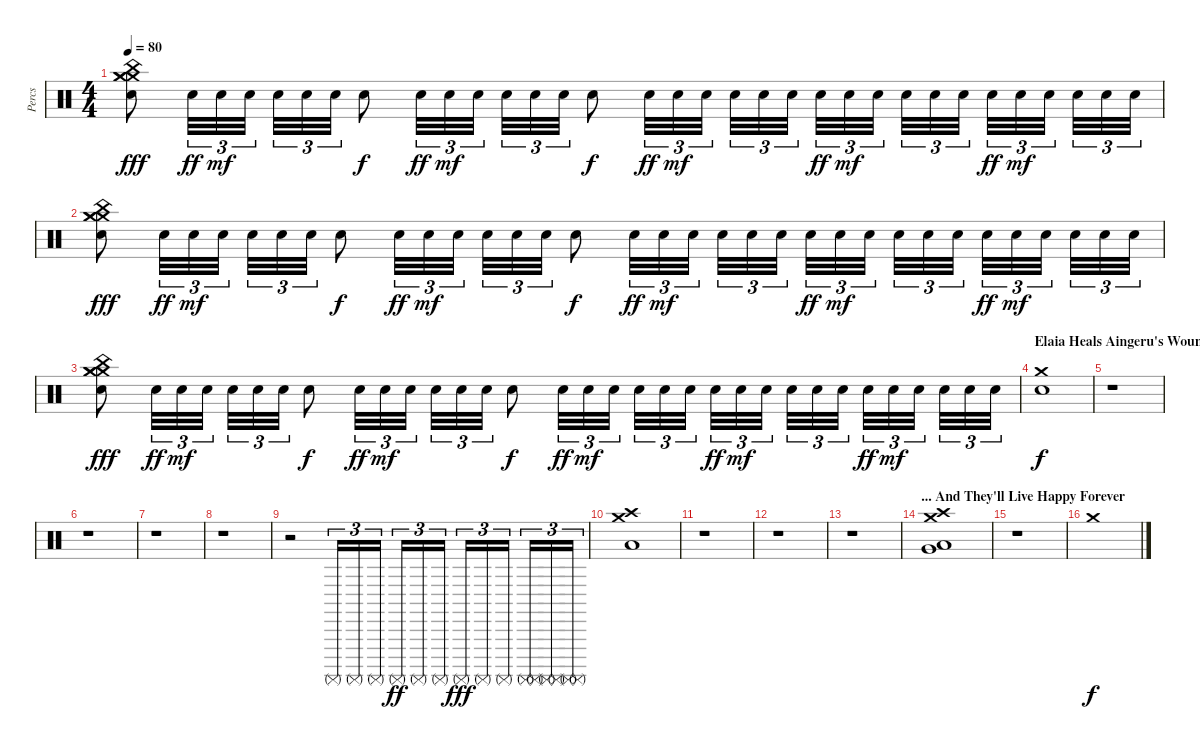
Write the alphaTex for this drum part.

\track ("Percs" "Percs") {instrument percussion}
\staff {score}
\articulation defaults
\ts (4 4)
\tempo 80
\clef neutral
\ks c
("Crash medium (hit)" "Crash medium (hit)" "Crash medium (hit)" "Snare (hit) 2" "China (hit)").8{dy fff volume 12} "Snare (hit) 2".32{tu (3 2) dy ff} "Snare (hit) 2".32{tu (3 2) dy mf} "Snare (hit) 2".32{tu (3 2)} "Snare (hit) 2".32{tu (3 2)} "Snare (hit) 2".32{tu (3 2)} "Snare (hit) 2".32{tu (3 2)} "Snare (hit) 2".8{dy f} "Snare (hit) 2".32{tu (3 2) dy ff} "Snare (hit) 2".32{tu (3 2) dy mf} "Snare (hit) 2".32{tu (3 2)} "Snare (hit) 2".32{tu (3 2)} "Snare (hit) 2".32{tu (3 2)} "Snare (hit) 2".32{tu (3 2)} "Snare (hit) 2".8{dy f} "Snare (hit) 2".32{tu (3 2) dy ff} "Snare (hit) 2".32{tu (3 2) dy mf} "Snare (hit) 2".32{tu (3 2)} "Snare (hit) 2".32{tu (3 2)} "Snare (hit) 2".32{tu (3 2)} "Snare (hit) 2".32{tu (3 2)} "Snare (hit) 2".32{tu (3 2) dy ff} "Snare (hit) 2".32{tu (3 2) dy mf} "Snare (hit) 2".32{tu (3 2)} "Snare (hit) 2".32{tu (3 2)} "Snare (hit) 2".32{tu (3 2)} "Snare (hit) 2".32{tu (3 2)} "Snare (hit) 2".32{tu (3 2) dy ff} "Snare (hit) 2".32{tu (3 2) dy mf} "Snare (hit) 2".32{tu (3 2)} "Snare (hit) 2".32{tu (3 2)} "Snare (hit) 2".32{tu (3 2)} "Snare (hit) 2".32{tu (3 2)} |
("Crash medium (hit)" "Crash medium (hit)" "Crash medium (hit)" "Snare (hit) 2" "China (hit)").8{dy fff volume 12} "Snare (hit) 2".32{tu (3 2) dy ff} "Snare (hit) 2".32{tu (3 2) dy mf} "Snare (hit) 2".32{tu (3 2)} "Snare (hit) 2".32{tu (3 2)} "Snare (hit) 2".32{tu (3 2)} "Snare (hit) 2".32{tu (3 2)} "Snare (hit) 2".8{dy f} "Snare (hit) 2".32{tu (3 2) dy ff} "Snare (hit) 2".32{tu (3 2) dy mf} "Snare (hit) 2".32{tu (3 2)} "Snare (hit) 2".32{tu (3 2)} "Snare (hit) 2".32{tu (3 2)} "Snare (hit) 2".32{tu (3 2)} "Snare (hit) 2".8{dy f} "Snare (hit) 2".32{tu (3 2) dy ff} "Snare (hit) 2".32{tu (3 2) dy mf} "Snare (hit) 2".32{tu (3 2)} "Snare (hit) 2".32{tu (3 2)} "Snare (hit) 2".32{tu (3 2)} "Snare (hit) 2".32{tu (3 2)} "Snare (hit) 2".32{tu (3 2) dy ff} "Snare (hit) 2".32{tu (3 2) dy mf} "Snare (hit) 2".32{tu (3 2)} "Snare (hit) 2".32{tu (3 2)} "Snare (hit) 2".32{tu (3 2)} "Snare (hit) 2".32{tu (3 2)} "Snare (hit) 2".32{tu (3 2) dy ff} "Snare (hit) 2".32{tu (3 2) dy mf} "Snare (hit) 2".32{tu (3 2)} "Snare (hit) 2".32{tu (3 2)} "Snare (hit) 2".32{tu (3 2)} "Snare (hit) 2".32{tu (3 2)} |
("Crash medium (hit)" "Crash medium (hit)" "Crash medium (hit)" "Snare (hit) 2" "China (hit)").8{dy fff volume 12} "Snare (hit) 2".32{tu (3 2) dy ff} "Snare (hit) 2".32{tu (3 2) dy mf} "Snare (hit) 2".32{tu (3 2)} "Snare (hit) 2".32{tu (3 2)} "Snare (hit) 2".32{tu (3 2)} "Snare (hit) 2".32{tu (3 2)} "Snare (hit) 2".8{dy f} "Snare (hit) 2".32{tu (3 2) dy ff} "Snare (hit) 2".32{tu (3 2) dy mf} "Snare (hit) 2".32{tu (3 2)} "Snare (hit) 2".32{tu (3 2)} "Snare (hit) 2".32{tu (3 2)} "Snare (hit) 2".32{tu (3 2)} "Snare (hit) 2".8{dy f} "Snare (hit) 2".32{tu (3 2) dy ff} "Snare (hit) 2".32{tu (3 2) dy mf} "Snare (hit) 2".32{tu (3 2)} "Snare (hit) 2".32{tu (3 2)} "Snare (hit) 2".32{tu (3 2)} "Snare (hit) 2".32{tu (3 2)} "Snare (hit) 2".32{tu (3 2) dy ff} "Snare (hit) 2".32{tu (3 2) dy mf} "Snare (hit) 2".32{tu (3 2)} "Snare (hit) 2".32{tu (3 2)} "Snare (hit) 2".32{tu (3 2)} "Snare (hit) 2".32{tu (3 2)} "Snare (hit) 2".32{tu (3 2) dy ff} "Snare (hit) 2".32{tu (3 2) dy mf} "Snare (hit) 2".32{tu (3 2)} "Snare (hit) 2".32{tu (3 2)} "Snare (hit) 2".32{tu (3 2)} "Snare (hit) 2".32{tu (3 2)} |
\section ("" "Elaia Heals Aingeru's Wounds")
("Crash medium (hit)" "Snare (hit) 2").1{dy f} |
r.1 |
r.1 |
r.1 |
r.1 |
r.2 "Surdo (mute)".16{tu (3 2)} "Surdo (mute)".16{tu (3 2)} "Surdo (mute)".16{tu (3 2)} "Surdo (mute)".16{tu (3 2) dy ff} "Surdo (mute)".16{tu (3 2)} "Surdo (mute)".16{tu (3 2)} "Surdo (mute)".16{tu (3 2) dy fff} "Surdo (mute)".16{tu (3 2)} "Surdo (mute)".16{tu (3 2)} ("Surdo (mute)" "Surdo (mute)").16{tu (3 2)} ("Surdo (mute)" "Surdo (mute)").16{tu (3 2)} ("Surdo (mute)" "Surdo (mute)").16{tu (3 2)} |
("Crash medium (hit)" "Crash high (hit)" "Low Tom (hit)").1 |
r.1 |
r.1 |
r.1 |
\section ("" "... And They'll Live Happy Forever")
("Crash medium (hit)" "Crash high (hit)" "Low Tom (hit)" "Very Low Tom (hit)").1 |
r.1 |
"Crash medium (hit)".1{dy f}
